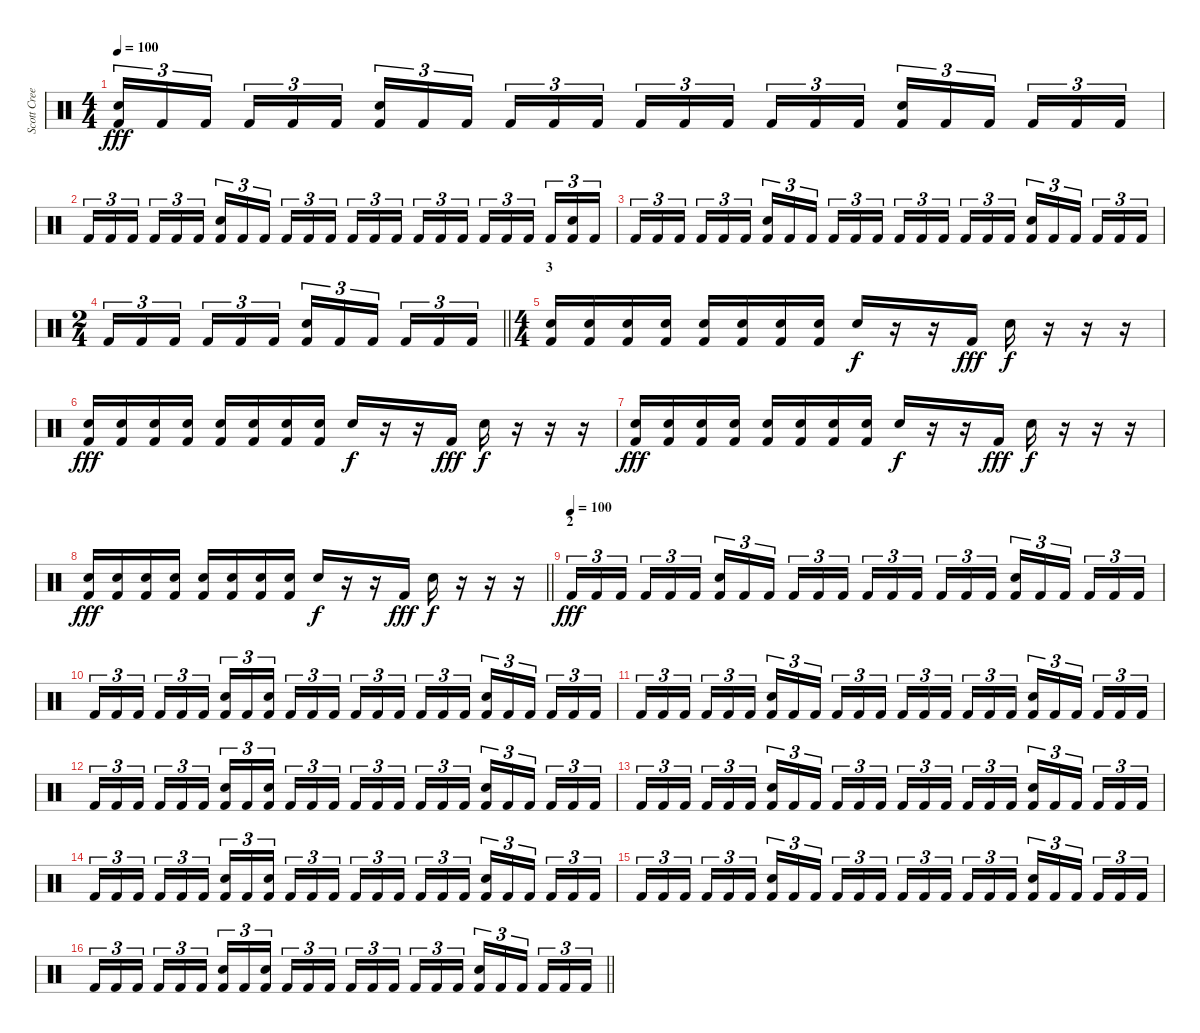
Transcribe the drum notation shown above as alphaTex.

\track ("Scott Creekmore" "Scott Cree") {instrument percussion}
\staff {score}
\articulation defaults
\ts (4 4)
\tempo 100
\clef neutral
\ks c
("Electric Snare (hit)" "Kick (hit) 2").16{tu (3 2) dy fff} "Kick (hit) 2".16{tu (3 2)} "Kick (hit) 2".16{tu (3 2) beam splitsecondary} "Kick (hit) 2".16{tu (3 2)} "Kick (hit) 2".16{tu (3 2)} "Kick (hit) 2".16{tu (3 2)} ("Electric Snare (hit)" "Kick (hit) 2").16{tu (3 2)} "Kick (hit) 2".16{tu (3 2)} "Kick (hit) 2".16{tu (3 2) beam splitsecondary} "Kick (hit) 2".16{tu (3 2)} "Kick (hit) 2".16{tu (3 2)} "Kick (hit) 2".16{tu (3 2)} "Kick (hit) 2".16{tu (3 2)} "Kick (hit) 2".16{tu (3 2)} "Kick (hit) 2".16{tu (3 2) beam splitsecondary} "Kick (hit) 2".16{tu (3 2)} "Kick (hit) 2".16{tu (3 2)} "Kick (hit) 2".16{tu (3 2)} ("Electric Snare (hit)" "Kick (hit) 2").16{tu (3 2)} "Kick (hit) 2".16{tu (3 2)} "Kick (hit) 2".16{tu (3 2) beam splitsecondary} "Kick (hit) 2".16{tu (3 2)} "Kick (hit) 2".16{tu (3 2)} "Kick (hit) 2".16{tu (3 2)} |
"Kick (hit) 2".16{tu (3 2)} "Kick (hit) 2".16{tu (3 2)} "Kick (hit) 2".16{tu (3 2) beam splitsecondary} "Kick (hit) 2".16{tu (3 2)} "Kick (hit) 2".16{tu (3 2)} "Kick (hit) 2".16{tu (3 2)} ("Electric Snare (hit)" "Kick (hit) 2").16{tu (3 2)} "Kick (hit) 2".16{tu (3 2)} "Kick (hit) 2".16{tu (3 2) beam splitsecondary} "Kick (hit) 2".16{tu (3 2)} "Kick (hit) 2".16{tu (3 2)} "Kick (hit) 2".16{tu (3 2)} "Kick (hit) 2".16{tu (3 2)} "Kick (hit) 2".16{tu (3 2)} "Kick (hit) 2".16{tu (3 2) beam splitsecondary} "Kick (hit) 2".16{tu (3 2)} "Kick (hit) 2".16{tu (3 2)} "Kick (hit) 2".16{tu (3 2)} "Kick (hit) 2".16{tu (3 2)} "Kick (hit) 2".16{tu (3 2)} "Kick (hit) 2".16{tu (3 2) beam splitsecondary} "Kick (hit) 2".16{tu (3 2)} ("Electric Snare (hit)" "Kick (hit) 2").16{tu (3 2)} "Kick (hit) 2".16{tu (3 2)} |
"Kick (hit) 2".16{tu (3 2)} "Kick (hit) 2".16{tu (3 2)} "Kick (hit) 2".16{tu (3 2) beam splitsecondary} "Kick (hit) 2".16{tu (3 2)} "Kick (hit) 2".16{tu (3 2)} "Kick (hit) 2".16{tu (3 2)} ("Electric Snare (hit)" "Kick (hit) 2").16{tu (3 2)} "Kick (hit) 2".16{tu (3 2)} "Kick (hit) 2".16{tu (3 2) beam splitsecondary} "Kick (hit) 2".16{tu (3 2)} "Kick (hit) 2".16{tu (3 2)} "Kick (hit) 2".16{tu (3 2)} "Kick (hit) 2".16{tu (3 2)} "Kick (hit) 2".16{tu (3 2)} "Kick (hit) 2".16{tu (3 2) beam splitsecondary} "Kick (hit) 2".16{tu (3 2)} "Kick (hit) 2".16{tu (3 2)} "Kick (hit) 2".16{tu (3 2)} ("Electric Snare (hit)" "Kick (hit) 2").16{tu (3 2)} "Kick (hit) 2".16{tu (3 2)} "Kick (hit) 2".16{tu (3 2) beam splitsecondary} "Kick (hit) 2".16{tu (3 2)} "Kick (hit) 2".16{tu (3 2)} "Kick (hit) 2".16{tu (3 2)} |
\ts (2 4)
\barLineRight lightlight "Kick (hit) 2".16{tu (3 2)} "Kick (hit) 2".16{tu (3 2)} "Kick (hit) 2".16{tu (3 2) beam splitsecondary} "Kick (hit) 2".16{tu (3 2)} "Kick (hit) 2".16{tu (3 2)} "Kick (hit) 2".16{tu (3 2)}
("Electric Snare (hit)" "Kick (hit) 2").16{tu (3 2)} "Kick (hit) 2".16{tu (3 2)} "Kick (hit) 2".16{tu (3 2) beam splitsecondary} "Kick (hit) 2".16{tu (3 2)} "Kick (hit) 2".16{tu (3 2)} "Kick (hit) 2".16{tu (3 2)} |
\ts (4 4)
\section ("" "3")
("Electric Snare (hit)" "Kick (hit) 2").16 ("Electric Snare (hit)" "Kick (hit) 2").16 ("Electric Snare (hit)" "Kick (hit) 2").16 ("Electric Snare (hit)" "Kick (hit) 2").16 ("Electric Snare (hit)" "Kick (hit) 2").16 ("Electric Snare (hit)" "Kick (hit) 2").16 ("Electric Snare (hit)" "Kick (hit) 2").16 ("Electric Snare (hit)" "Kick (hit) 2").16 "Electric Snare (hit)".16{dy f} r.16 r.16 "Kick (hit) 2".16{dy fff} "Electric Snare (hit)".16{dy f} r.16 r.16 r.16 |
("Electric Snare (hit)" "Kick (hit) 2").16{dy fff} ("Electric Snare (hit)" "Kick (hit) 2").16 ("Electric Snare (hit)" "Kick (hit) 2").16 ("Electric Snare (hit)" "Kick (hit) 2").16 ("Electric Snare (hit)" "Kick (hit) 2").16 ("Electric Snare (hit)" "Kick (hit) 2").16 ("Electric Snare (hit)" "Kick (hit) 2").16 ("Electric Snare (hit)" "Kick (hit) 2").16 "Electric Snare (hit)".16{dy f} r.16 r.16 "Kick (hit) 2".16{dy fff} "Electric Snare (hit)".16{dy f} r.16 r.16 r.16 |
("Electric Snare (hit)" "Kick (hit) 2").16{dy fff} ("Electric Snare (hit)" "Kick (hit) 2").16 ("Electric Snare (hit)" "Kick (hit) 2").16 ("Electric Snare (hit)" "Kick (hit) 2").16 ("Electric Snare (hit)" "Kick (hit) 2").16 ("Electric Snare (hit)" "Kick (hit) 2").16 ("Electric Snare (hit)" "Kick (hit) 2").16 ("Electric Snare (hit)" "Kick (hit) 2").16 "Electric Snare (hit)".16{dy f} r.16 r.16 "Kick (hit) 2".16{dy fff} "Electric Snare (hit)".16{dy f} r.16 r.16 r.16 |
\barLineRight lightlight
("Electric Snare (hit)" "Kick (hit) 2").16{dy fff} ("Electric Snare (hit)" "Kick (hit) 2").16 ("Electric Snare (hit)" "Kick (hit) 2").16 ("Electric Snare (hit)" "Kick (hit) 2").16 ("Electric Snare (hit)" "Kick (hit) 2").16 ("Electric Snare (hit)" "Kick (hit) 2").16 ("Electric Snare (hit)" "Kick (hit) 2").16 ("Electric Snare (hit)" "Kick (hit) 2").16 "Electric Snare (hit)".16{dy f} r.16 r.16 "Kick (hit) 2".16{dy fff} "Electric Snare (hit)".16{dy f} r.16 r.16 r.16 |
\section ("" "2")
\tempo (100)
"Kick (hit) 2".16{tu (3 2) dy fff} "Kick (hit) 2".16{tu (3 2)} "Kick (hit) 2".16{tu (3 2) beam splitsecondary} "Kick (hit) 2".16{tu (3 2)} "Kick (hit) 2".16{tu (3 2)} "Kick (hit) 2".16{tu (3 2)} ("Electric Snare (hit)" "Kick (hit) 2").16{tu (3 2)} "Kick (hit) 2".16{tu (3 2)} "Kick (hit) 2".16{tu (3 2) beam splitsecondary} "Kick (hit) 2".16{tu (3 2)} "Kick (hit) 2".16{tu (3 2)} "Kick (hit) 2".16{tu (3 2)} "Kick (hit) 2".16{tu (3 2)} "Kick (hit) 2".16{tu (3 2)} "Kick (hit) 2".16{tu (3 2) beam splitsecondary} "Kick (hit) 2".16{tu (3 2)} "Kick (hit) 2".16{tu (3 2)} "Kick (hit) 2".16{tu (3 2)} ("Electric Snare (hit)" "Kick (hit) 2").16{tu (3 2)} "Kick (hit) 2".16{tu (3 2)} "Kick (hit) 2".16{tu (3 2) beam splitsecondary} "Kick (hit) 2".16{tu (3 2)} "Kick (hit) 2".16{tu (3 2)} "Kick (hit) 2".16{tu (3 2)} |
"Kick (hit) 2".16{tu (3 2)} "Kick (hit) 2".16{tu (3 2)} "Kick (hit) 2".16{tu (3 2) beam splitsecondary} "Kick (hit) 2".16{tu (3 2)} "Kick (hit) 2".16{tu (3 2)} "Kick (hit) 2".16{tu (3 2)} ("Electric Snare (hit)" "Kick (hit) 2").16{tu (3 2)} "Kick (hit) 2".16{tu (3 2)} ("Electric Snare (hit)" "Kick (hit) 2").16{tu (3 2) beam splitsecondary} "Kick (hit) 2".16{tu (3 2)} "Kick (hit) 2".16{tu (3 2)} "Kick (hit) 2".16{tu (3 2)} "Kick (hit) 2".16{tu (3 2)} "Kick (hit) 2".16{tu (3 2)} "Kick (hit) 2".16{tu (3 2) beam splitsecondary} "Kick (hit) 2".16{tu (3 2)} "Kick (hit) 2".16{tu (3 2)} "Kick (hit) 2".16{tu (3 2)} ("Electric Snare (hit)" "Kick (hit) 2").16{tu (3 2)} "Kick (hit) 2".16{tu (3 2)} "Kick (hit) 2".16{tu (3 2) beam splitsecondary} "Kick (hit) 2".16{tu (3 2)} "Kick (hit) 2".16{tu (3 2)} "Kick (hit) 2".16{tu (3 2)} |
"Kick (hit) 2".16{tu (3 2)} "Kick (hit) 2".16{tu (3 2)} "Kick (hit) 2".16{tu (3 2) beam splitsecondary} "Kick (hit) 2".16{tu (3 2)} "Kick (hit) 2".16{tu (3 2)} "Kick (hit) 2".16{tu (3 2)} ("Electric Snare (hit)" "Kick (hit) 2").16{tu (3 2)} "Kick (hit) 2".16{tu (3 2)} "Kick (hit) 2".16{tu (3 2) beam splitsecondary} "Kick (hit) 2".16{tu (3 2)} "Kick (hit) 2".16{tu (3 2)} "Kick (hit) 2".16{tu (3 2)} "Kick (hit) 2".16{tu (3 2)} "Kick (hit) 2".16{tu (3 2)} "Kick (hit) 2".16{tu (3 2) beam splitsecondary} "Kick (hit) 2".16{tu (3 2)} "Kick (hit) 2".16{tu (3 2)} "Kick (hit) 2".16{tu (3 2)} ("Electric Snare (hit)" "Kick (hit) 2").16{tu (3 2)} "Kick (hit) 2".16{tu (3 2)} "Kick (hit) 2".16{tu (3 2) beam splitsecondary} "Kick (hit) 2".16{tu (3 2)} "Kick (hit) 2".16{tu (3 2)} "Kick (hit) 2".16{tu (3 2)} |
"Kick (hit) 2".16{tu (3 2)} "Kick (hit) 2".16{tu (3 2)} "Kick (hit) 2".16{tu (3 2) beam splitsecondary} "Kick (hit) 2".16{tu (3 2)} "Kick (hit) 2".16{tu (3 2)} "Kick (hit) 2".16{tu (3 2)} ("Electric Snare (hit)" "Kick (hit) 2").16{tu (3 2)} "Kick (hit) 2".16{tu (3 2)} ("Electric Snare (hit)" "Kick (hit) 2").16{tu (3 2) beam splitsecondary} "Kick (hit) 2".16{tu (3 2)} "Kick (hit) 2".16{tu (3 2)} "Kick (hit) 2".16{tu (3 2)} "Kick (hit) 2".16{tu (3 2)} "Kick (hit) 2".16{tu (3 2)} "Kick (hit) 2".16{tu (3 2) beam splitsecondary} "Kick (hit) 2".16{tu (3 2)} "Kick (hit) 2".16{tu (3 2)} "Kick (hit) 2".16{tu (3 2)} ("Electric Snare (hit)" "Kick (hit) 2").16{tu (3 2)} "Kick (hit) 2".16{tu (3 2)} "Kick (hit) 2".16{tu (3 2) beam splitsecondary} "Kick (hit) 2".16{tu (3 2)} "Kick (hit) 2".16{tu (3 2)} "Kick (hit) 2".16{tu (3 2)} |
"Kick (hit) 2".16{tu (3 2)} "Kick (hit) 2".16{tu (3 2)} "Kick (hit) 2".16{tu (3 2) beam splitsecondary} "Kick (hit) 2".16{tu (3 2)} "Kick (hit) 2".16{tu (3 2)} "Kick (hit) 2".16{tu (3 2)} ("Electric Snare (hit)" "Kick (hit) 2").16{tu (3 2)} "Kick (hit) 2".16{tu (3 2)} "Kick (hit) 2".16{tu (3 2) beam splitsecondary} "Kick (hit) 2".16{tu (3 2)} "Kick (hit) 2".16{tu (3 2)} "Kick (hit) 2".16{tu (3 2)} "Kick (hit) 2".16{tu (3 2)} "Kick (hit) 2".16{tu (3 2)} "Kick (hit) 2".16{tu (3 2) beam splitsecondary} "Kick (hit) 2".16{tu (3 2)} "Kick (hit) 2".16{tu (3 2)} "Kick (hit) 2".16{tu (3 2)} ("Electric Snare (hit)" "Kick (hit) 2").16{tu (3 2)} "Kick (hit) 2".16{tu (3 2)} "Kick (hit) 2".16{tu (3 2) beam splitsecondary} "Kick (hit) 2".16{tu (3 2)} "Kick (hit) 2".16{tu (3 2)} "Kick (hit) 2".16{tu (3 2)} |
"Kick (hit) 2".16{tu (3 2)} "Kick (hit) 2".16{tu (3 2)} "Kick (hit) 2".16{tu (3 2) beam splitsecondary} "Kick (hit) 2".16{tu (3 2)} "Kick (hit) 2".16{tu (3 2)} "Kick (hit) 2".16{tu (3 2)} ("Electric Snare (hit)" "Kick (hit) 2").16{tu (3 2)} "Kick (hit) 2".16{tu (3 2)} ("Electric Snare (hit)" "Kick (hit) 2").16{tu (3 2) beam splitsecondary} "Kick (hit) 2".16{tu (3 2)} "Kick (hit) 2".16{tu (3 2)} "Kick (hit) 2".16{tu (3 2)} "Kick (hit) 2".16{tu (3 2)} "Kick (hit) 2".16{tu (3 2)} "Kick (hit) 2".16{tu (3 2) beam splitsecondary} "Kick (hit) 2".16{tu (3 2)} "Kick (hit) 2".16{tu (3 2)} "Kick (hit) 2".16{tu (3 2)} ("Electric Snare (hit)" "Kick (hit) 2").16{tu (3 2)} "Kick (hit) 2".16{tu (3 2)} "Kick (hit) 2".16{tu (3 2) beam splitsecondary} "Kick (hit) 2".16{tu (3 2)} "Kick (hit) 2".16{tu (3 2)} "Kick (hit) 2".16{tu (3 2)} |
"Kick (hit) 2".16{tu (3 2)} "Kick (hit) 2".16{tu (3 2)} "Kick (hit) 2".16{tu (3 2) beam splitsecondary} "Kick (hit) 2".16{tu (3 2)} "Kick (hit) 2".16{tu (3 2)} "Kick (hit) 2".16{tu (3 2)} ("Electric Snare (hit)" "Kick (hit) 2").16{tu (3 2)} "Kick (hit) 2".16{tu (3 2)} "Kick (hit) 2".16{tu (3 2) beam splitsecondary} "Kick (hit) 2".16{tu (3 2)} "Kick (hit) 2".16{tu (3 2)} "Kick (hit) 2".16{tu (3 2)} "Kick (hit) 2".16{tu (3 2)} "Kick (hit) 2".16{tu (3 2)} "Kick (hit) 2".16{tu (3 2) beam splitsecondary} "Kick (hit) 2".16{tu (3 2)} "Kick (hit) 2".16{tu (3 2)} "Kick (hit) 2".16{tu (3 2)} ("Electric Snare (hit)" "Kick (hit) 2").16{tu (3 2)} "Kick (hit) 2".16{tu (3 2)} "Kick (hit) 2".16{tu (3 2) beam splitsecondary} "Kick (hit) 2".16{tu (3 2)} "Kick (hit) 2".16{tu (3 2)} "Kick (hit) 2".16{tu (3 2)} |
\barLineRight lightlight "Kick (hit) 2".16{tu (3 2)} "Kick (hit) 2".16{tu (3 2)} "Kick (hit) 2".16{tu (3 2) beam splitsecondary} "Kick (hit) 2".16{tu (3 2)} "Kick (hit) 2".16{tu (3 2)} "Kick (hit) 2".16{tu (3 2)}
("Electric Snare (hit)" "Kick (hit) 2").16{tu (3 2)} "Kick (hit) 2".16{tu (3 2)} ("Electric Snare (hit)" "Kick (hit) 2").16{tu (3 2) beam splitsecondary} "Kick (hit) 2".16{tu (3 2)} "Kick (hit) 2".16{tu (3 2)} "Kick (hit) 2".16{tu (3 2)} "Kick (hit) 2".16{tu (3 2)} "Kick (hit) 2".16{tu (3 2)} "Kick (hit) 2".16{tu (3 2) beam splitsecondary} "Kick (hit) 2".16{tu (3 2)} "Kick (hit) 2".16{tu (3 2)} "Kick (hit) 2".16{tu (3 2)} ("Electric Snare (hit)" "Kick (hit) 2").16{tu (3 2)} "Kick (hit) 2".16{tu (3 2)} "Kick (hit) 2".16{tu (3 2) beam splitsecondary} "Kick (hit) 2".16{tu (3 2)} "Kick (hit) 2".16{tu (3 2)} "Kick (hit) 2".16{tu (3 2)}
